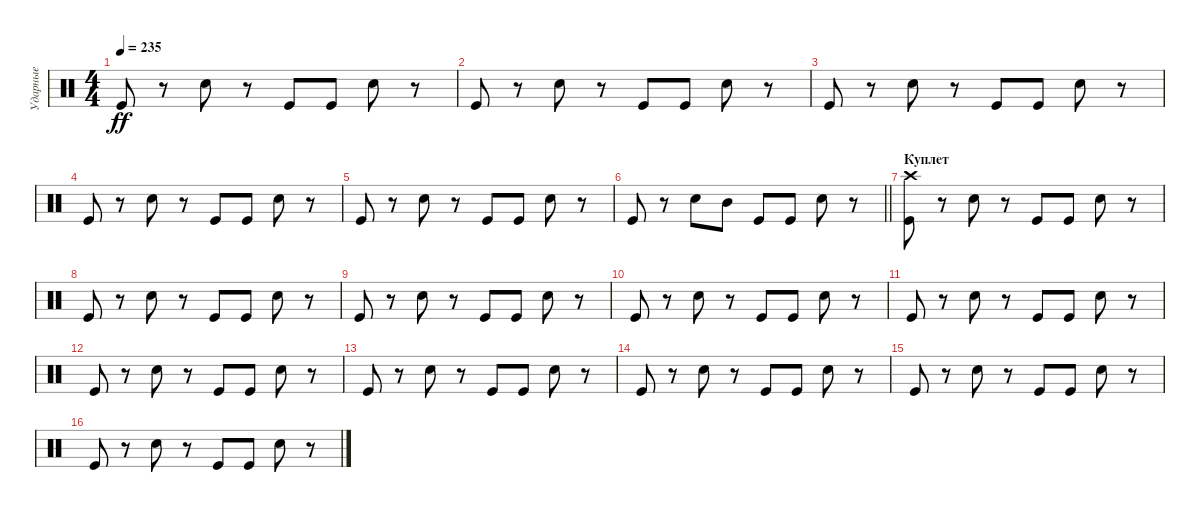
\track ("Ударные" "Ударные") {instrument percussion}
\staff {score}
\articulation defaults
\ts (4 4)
\tempo 235
\clef neutral
\ks c "Kick (hit)".8{dy ff}
r.8 "Snare (hit) 2".8 r.8 "Kick (hit)".8 "Kick (hit)".8 "Snare (hit) 2".8 r.8 |
"Kick (hit)".8 r.8 "Snare (hit) 2".8 r.8 "Kick (hit)".8 "Kick (hit)".8 "Snare (hit) 2".8 r.8 |
"Kick (hit)".8 r.8 "Snare (hit) 2".8 r.8 "Kick (hit)".8 "Kick (hit)".8 "Snare (hit) 2".8 r.8 |
"Kick (hit)".8 r.8 "Snare (hit) 2".8 r.8 "Kick (hit)".8 "Kick (hit)".8 "Snare (hit) 2".8 r.8 |
"Kick (hit)".8 r.8 "Snare (hit) 2".8 r.8 "Kick (hit)".8 "Kick (hit)".8 "Snare (hit) 2".8 r.8 |
\barLineRight lightlight "Kick (hit)".8
r.8 "Snare (hit) 2".8 "Mid Tom (hit)".8 "Kick (hit)".8 "Kick (hit)".8 "Snare (hit) 2".8 r.8 |
\section ("" "Куплет")
("Kick (hit)" "Crash high (hit)").8 r.8 "Snare (hit) 2".8 r.8 "Kick (hit)".8 "Kick (hit)".8 "Snare (hit) 2".8 r.8 |
"Kick (hit)".8 r.8 "Snare (hit) 2".8 r.8 "Kick (hit)".8 "Kick (hit)".8 "Snare (hit) 2".8 r.8 |
"Kick (hit)".8 r.8 "Snare (hit) 2".8 r.8 "Kick (hit)".8 "Kick (hit)".8 "Snare (hit) 2".8 r.8 |
"Kick (hit)".8 r.8 "Snare (hit) 2".8 r.8 "Kick (hit)".8 "Kick (hit)".8 "Snare (hit) 2".8 r.8 |
"Kick (hit)".8 r.8 "Snare (hit) 2".8 r.8 "Kick (hit)".8 "Kick (hit)".8 "Snare (hit) 2".8 r.8 |
"Kick (hit)".8 r.8 "Snare (hit) 2".8 r.8 "Kick (hit)".8 "Kick (hit)".8 "Snare (hit) 2".8 r.8 |
"Kick (hit)".8 r.8 "Snare (hit) 2".8 r.8 "Kick (hit)".8 "Kick (hit)".8 "Snare (hit) 2".8 r.8 |
"Kick (hit)".8 r.8 "Snare (hit) 2".8 r.8 "Kick (hit)".8 "Kick (hit)".8 "Snare (hit) 2".8 r.8 |
"Kick (hit)".8 r.8 "Snare (hit) 2".8 r.8 "Kick (hit)".8 "Kick (hit)".8 "Snare (hit) 2".8 r.8 |
"Kick (hit)".8 r.8 "Snare (hit) 2".8 r.8 "Kick (hit)".8 "Kick (hit)".8 "Snare (hit) 2".8 r.8
